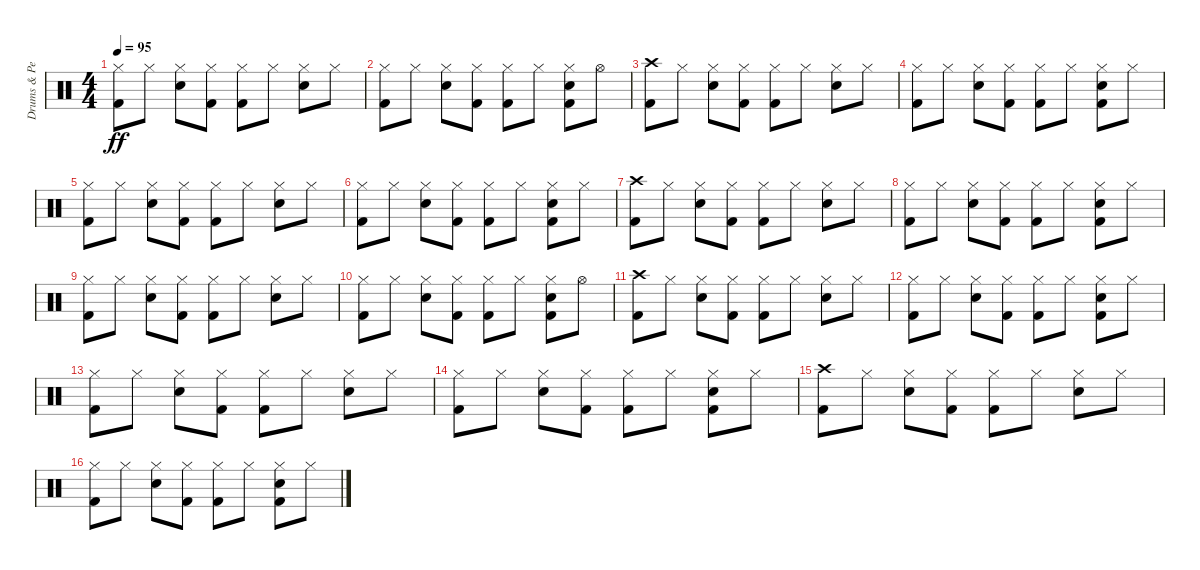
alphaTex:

\track ("Drums & Percussion" "Drums & Pe") {instrument percussion}
\staff {score}
\articulation defaults
\ts (4 4)
\tempo 95
\clef neutral
\ks c
("Kick (hit) 2" "Hi-Hat (closed)").8{dy ff} "Hi-Hat (closed)".8 ("Snare (hit) 2" "Hi-Hat (closed)").8 ("Kick (hit) 2" "Hi-Hat (closed)").8 ("Kick (hit) 2" "Hi-Hat (closed)").8 "Hi-Hat (closed)".8 ("Snare (hit) 2" "Hi-Hat (closed)").8 "Hi-Hat (closed)".8 |
("Kick (hit) 2" "Hi-Hat (closed)").8 "Hi-Hat (closed)".8 ("Snare (hit) 2" "Hi-Hat (closed)").8 ("Kick (hit) 2" "Hi-Hat (closed)").8 ("Kick (hit) 2" "Hi-Hat (closed)").8 "Hi-Hat (closed)".8 ("Kick (hit) 2" "Snare (hit) 2" "Hi-Hat (closed)").8 "Hi-Hat (open)".8 |
("Kick (hit) 2" "Crash high (hit)").8 "Hi-Hat (closed)".8 ("Snare (hit) 2" "Hi-Hat (closed)").8 ("Kick (hit) 2" "Hi-Hat (closed)").8 ("Kick (hit) 2" "Hi-Hat (closed)").8 "Hi-Hat (closed)".8 ("Snare (hit) 2" "Hi-Hat (closed)").8 "Hi-Hat (closed)".8 |
("Kick (hit) 2" "Hi-Hat (closed)").8 "Hi-Hat (closed)".8 ("Snare (hit) 2" "Hi-Hat (closed)").8 ("Kick (hit) 2" "Hi-Hat (closed)").8 ("Kick (hit) 2" "Hi-Hat (closed)").8 "Hi-Hat (closed)".8 ("Kick (hit) 2" "Snare (hit) 2" "Hi-Hat (closed)").8 "Hi-Hat (closed)".8 |
("Kick (hit) 2" "Hi-Hat (closed)").8 "Hi-Hat (closed)".8 ("Snare (hit) 2" "Hi-Hat (closed)").8 ("Kick (hit) 2" "Hi-Hat (closed)").8 ("Kick (hit) 2" "Hi-Hat (closed)").8 "Hi-Hat (closed)".8 ("Snare (hit) 2" "Hi-Hat (closed)").8 "Hi-Hat (closed)".8 |
("Kick (hit) 2" "Hi-Hat (closed)").8 "Hi-Hat (closed)".8 ("Snare (hit) 2" "Hi-Hat (closed)").8 ("Kick (hit) 2" "Hi-Hat (closed)").8 ("Kick (hit) 2" "Hi-Hat (closed)").8 "Hi-Hat (closed)".8 ("Kick (hit) 2" "Snare (hit) 2" "Hi-Hat (closed)").8 "Hi-Hat (closed)".8 |
("Kick (hit) 2" "Crash high (hit)").8 "Hi-Hat (closed)".8 ("Snare (hit) 2" "Hi-Hat (closed)").8 ("Kick (hit) 2" "Hi-Hat (closed)").8 ("Kick (hit) 2" "Hi-Hat (closed)").8 "Hi-Hat (closed)".8 ("Snare (hit) 2" "Hi-Hat (closed)").8 "Hi-Hat (closed)".8 |
("Kick (hit) 2" "Hi-Hat (closed)").8 "Hi-Hat (closed)".8 ("Snare (hit) 2" "Hi-Hat (closed)").8 ("Kick (hit) 2" "Hi-Hat (closed)").8 ("Kick (hit) 2" "Hi-Hat (closed)").8 "Hi-Hat (closed)".8 ("Kick (hit) 2" "Snare (hit) 2" "Hi-Hat (closed)").8 "Hi-Hat (closed)".8 |
("Kick (hit) 2" "Hi-Hat (closed)").8 "Hi-Hat (closed)".8 ("Snare (hit) 2" "Hi-Hat (closed)").8 ("Kick (hit) 2" "Hi-Hat (closed)").8 ("Kick (hit) 2" "Hi-Hat (closed)").8 "Hi-Hat (closed)".8 ("Snare (hit) 2" "Hi-Hat (closed)").8 "Hi-Hat (closed)".8 |
("Kick (hit) 2" "Hi-Hat (closed)").8 "Hi-Hat (closed)".8 ("Snare (hit) 2" "Hi-Hat (closed)").8 ("Kick (hit) 2" "Hi-Hat (closed)").8 ("Kick (hit) 2" "Hi-Hat (closed)").8 "Hi-Hat (closed)".8 ("Kick (hit) 2" "Snare (hit) 2" "Hi-Hat (closed)").8 "Hi-Hat (open)".8 |
("Kick (hit) 2" "Crash high (hit)").8 "Hi-Hat (closed)".8 ("Snare (hit) 2" "Hi-Hat (closed)").8 ("Kick (hit) 2" "Hi-Hat (closed)").8 ("Kick (hit) 2" "Hi-Hat (closed)").8 "Hi-Hat (closed)".8 ("Snare (hit) 2" "Hi-Hat (closed)").8 "Hi-Hat (closed)".8 |
("Kick (hit) 2" "Hi-Hat (closed)").8 "Hi-Hat (closed)".8 ("Snare (hit) 2" "Hi-Hat (closed)").8 ("Kick (hit) 2" "Hi-Hat (closed)").8 ("Kick (hit) 2" "Hi-Hat (closed)").8 "Hi-Hat (closed)".8 ("Kick (hit) 2" "Snare (hit) 2" "Hi-Hat (closed)").8 "Hi-Hat (closed)".8 |
("Kick (hit) 2" "Hi-Hat (closed)").8 "Hi-Hat (closed)".8 ("Snare (hit) 2" "Hi-Hat (closed)").8 ("Kick (hit) 2" "Hi-Hat (closed)").8 ("Kick (hit) 2" "Hi-Hat (closed)").8 "Hi-Hat (closed)".8 ("Snare (hit) 2" "Hi-Hat (closed)").8 "Hi-Hat (closed)".8 |
("Kick (hit) 2" "Hi-Hat (closed)").8 "Hi-Hat (closed)".8 ("Snare (hit) 2" "Hi-Hat (closed)").8 ("Kick (hit) 2" "Hi-Hat (closed)").8 ("Kick (hit) 2" "Hi-Hat (closed)").8 "Hi-Hat (closed)".8 ("Kick (hit) 2" "Snare (hit) 2" "Hi-Hat (closed)").8 "Hi-Hat (closed)".8 |
("Kick (hit) 2" "Crash high (hit)").8 "Hi-Hat (closed)".8 ("Snare (hit) 2" "Hi-Hat (closed)").8 ("Kick (hit) 2" "Hi-Hat (closed)").8 ("Kick (hit) 2" "Hi-Hat (closed)").8 "Hi-Hat (closed)".8 ("Snare (hit) 2" "Hi-Hat (closed)").8 "Hi-Hat (closed)".8 |
("Kick (hit) 2" "Hi-Hat (closed)").8 "Hi-Hat (closed)".8 ("Snare (hit) 2" "Hi-Hat (closed)").8 ("Kick (hit) 2" "Hi-Hat (closed)").8 ("Kick (hit) 2" "Hi-Hat (closed)").8 "Hi-Hat (closed)".8 ("Kick (hit) 2" "Snare (hit) 2" "Hi-Hat (closed)").8 "Hi-Hat (closed)".8
